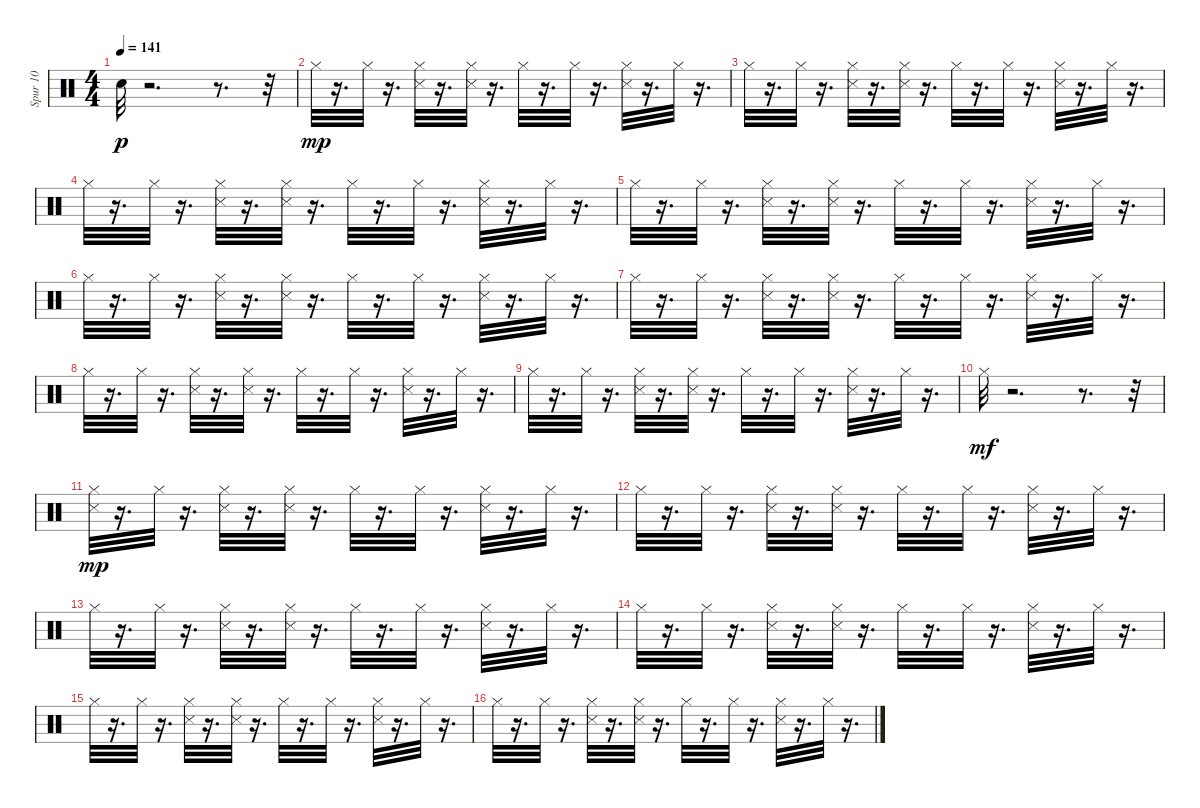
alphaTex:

\track ("Spur 10" "Spur 10") {instrument percussion}
\staff {score}
\articulation defaults
\ts (4 4)
\tempo 141
\clef neutral
\ks c "Snare (hit) 2".32{dy p}
r.2{d} r.8{d} r.32 |
"Hi-Hat (closed)".32{dy mp} r.16{d} "Hi-Hat (closed)".32 r.16{d} ("Snare (side stick) 3" "Hi-Hat (closed)").32 r.16{d} ("Snare (side stick) 3" "Hi-Hat (closed)").32 r.16{d} "Hi-Hat (closed)".32 r.16{d} "Hi-Hat (closed)".32 r.16{d} ("Snare (side stick) 3" "Hi-Hat (closed)").32 r.16{d} "Hi-Hat (closed)".32 r.16{d} |
"Hi-Hat (closed)".32 r.16{d} "Hi-Hat (closed)".32 r.16{d} ("Snare (side stick) 3" "Hi-Hat (closed)").32 r.16{d} ("Snare (side stick) 3" "Hi-Hat (closed)").32 r.16{d} "Hi-Hat (closed)".32 r.16{d} "Hi-Hat (closed)".32 r.16{d} ("Snare (side stick) 3" "Hi-Hat (closed)").32 r.16{d} "Hi-Hat (closed)".32 r.16{d} |
"Hi-Hat (closed)".32 r.16{d} "Hi-Hat (closed)".32 r.16{d} ("Snare (side stick) 3" "Hi-Hat (closed)").32 r.16{d} ("Snare (side stick) 3" "Hi-Hat (closed)").32 r.16{d} "Hi-Hat (closed)".32 r.16{d} "Hi-Hat (closed)".32 r.16{d} ("Snare (side stick) 3" "Hi-Hat (closed)").32 r.16{d} "Hi-Hat (closed)".32 r.16{d} |
"Hi-Hat (closed)".32 r.16{d} "Hi-Hat (closed)".32 r.16{d} ("Snare (side stick) 3" "Hi-Hat (closed)").32 r.16{d} ("Snare (side stick) 3" "Hi-Hat (closed)").32 r.16{d} "Hi-Hat (closed)".32 r.16{d} "Hi-Hat (closed)".32 r.16{d} ("Snare (side stick) 3" "Hi-Hat (closed)").32 r.16{d} "Hi-Hat (closed)".32 r.16{d} |
"Hi-Hat (closed)".32 r.16{d} "Hi-Hat (closed)".32 r.16{d} ("Snare (side stick) 3" "Hi-Hat (closed)").32 r.16{d} ("Snare (side stick) 3" "Hi-Hat (closed)").32 r.16{d} "Hi-Hat (closed)".32 r.16{d} "Hi-Hat (closed)".32 r.16{d} ("Snare (side stick) 3" "Hi-Hat (closed)").32 r.16{d} "Hi-Hat (closed)".32 r.16{d} |
"Hi-Hat (closed)".32 r.16{d} "Hi-Hat (closed)".32 r.16{d} ("Snare (side stick) 3" "Hi-Hat (closed)").32 r.16{d} ("Snare (side stick) 3" "Hi-Hat (closed)").32 r.16{d} "Hi-Hat (closed)".32 r.16{d} "Hi-Hat (closed)".32 r.16{d} ("Snare (side stick) 3" "Hi-Hat (closed)").32 r.16{d} "Hi-Hat (closed)".32 r.16{d} |
"Hi-Hat (closed)".32 r.16{d} "Hi-Hat (closed)".32 r.16{d} ("Snare (side stick) 3" "Hi-Hat (closed)").32 r.16{d} ("Snare (side stick) 3" "Hi-Hat (closed)").32 r.16{d} "Hi-Hat (closed)".32 r.16{d} "Hi-Hat (closed)".32 r.16{d} ("Snare (side stick) 3" "Hi-Hat (closed)").32 r.16{d} "Hi-Hat (closed)".32 r.16{d} |
"Hi-Hat (closed)".32 r.16{d} "Hi-Hat (closed)".32 r.16{d} ("Snare (side stick) 3" "Hi-Hat (closed)").32 r.16{d} ("Snare (side stick) 3" "Hi-Hat (closed)").32 r.16{d} "Hi-Hat (closed)".32 r.16{d} "Hi-Hat (closed)".32 r.16{d} ("Snare (side stick) 3" "Hi-Hat (closed)").32 r.16{d} "Hi-Hat (closed)".32 r.16{d} |
"Hi-Hat (closed)".32{dy mf} r.2{d} r.8{d} r.32 |
("Snare (side stick) 3" "Hi-Hat (closed)").32{dy mp} r.16{d} "Hi-Hat (closed)".32 r.16{d} ("Snare (side stick) 3" "Hi-Hat (closed)").32 r.16{d} ("Snare (side stick) 3" "Hi-Hat (closed)").32 r.16{d} "Hi-Hat (closed)".32 r.16{d} "Hi-Hat (closed)".32 r.16{d} ("Snare (side stick) 3" "Hi-Hat (closed)").32 r.16{d} "Hi-Hat (closed)".32 r.16{d} |
"Hi-Hat (closed)".32 r.16{d} "Hi-Hat (closed)".32 r.16{d} ("Snare (side stick) 3" "Hi-Hat (closed)").32 r.16{d} ("Snare (side stick) 3" "Hi-Hat (closed)").32 r.16{d} "Hi-Hat (closed)".32 r.16{d} "Hi-Hat (closed)".32 r.16{d} ("Snare (side stick) 3" "Hi-Hat (closed)").32 r.16{d} "Hi-Hat (closed)".32 r.16{d} |
"Hi-Hat (closed)".32 r.16{d} "Hi-Hat (closed)".32 r.16{d} ("Snare (side stick) 3" "Hi-Hat (closed)").32 r.16{d} ("Snare (side stick) 3" "Hi-Hat (closed)").32 r.16{d} "Hi-Hat (closed)".32 r.16{d} "Hi-Hat (closed)".32 r.16{d} ("Snare (side stick) 3" "Hi-Hat (closed)").32 r.16{d} "Hi-Hat (closed)".32 r.16{d} |
"Hi-Hat (closed)".32 r.16{d} "Hi-Hat (closed)".32 r.16{d} ("Snare (side stick) 3" "Hi-Hat (closed)").32 r.16{d} ("Snare (side stick) 3" "Hi-Hat (closed)").32 r.16{d} "Hi-Hat (closed)".32 r.16{d} "Hi-Hat (closed)".32 r.16{d} ("Snare (side stick) 3" "Hi-Hat (closed)").32 r.16{d} "Hi-Hat (closed)".32 r.16{d} |
"Hi-Hat (closed)".32 r.16{d} "Hi-Hat (closed)".32 r.16{d} ("Snare (side stick) 3" "Hi-Hat (closed)").32 r.16{d} ("Snare (side stick) 3" "Hi-Hat (closed)").32 r.16{d} "Hi-Hat (closed)".32 r.16{d} "Hi-Hat (closed)".32 r.16{d} ("Snare (side stick) 3" "Hi-Hat (closed)").32 r.16{d} "Hi-Hat (closed)".32 r.16{d} |
"Hi-Hat (closed)".32 r.16{d} "Hi-Hat (closed)".32 r.16{d} ("Snare (side stick) 3" "Hi-Hat (closed)").32 r.16{d} ("Snare (side stick) 3" "Hi-Hat (closed)").32 r.16{d} "Hi-Hat (closed)".32 r.16{d} "Hi-Hat (closed)".32 r.16{d} ("Snare (side stick) 3" "Hi-Hat (closed)").32 r.16{d} "Hi-Hat (closed)".32 r.16{d}
